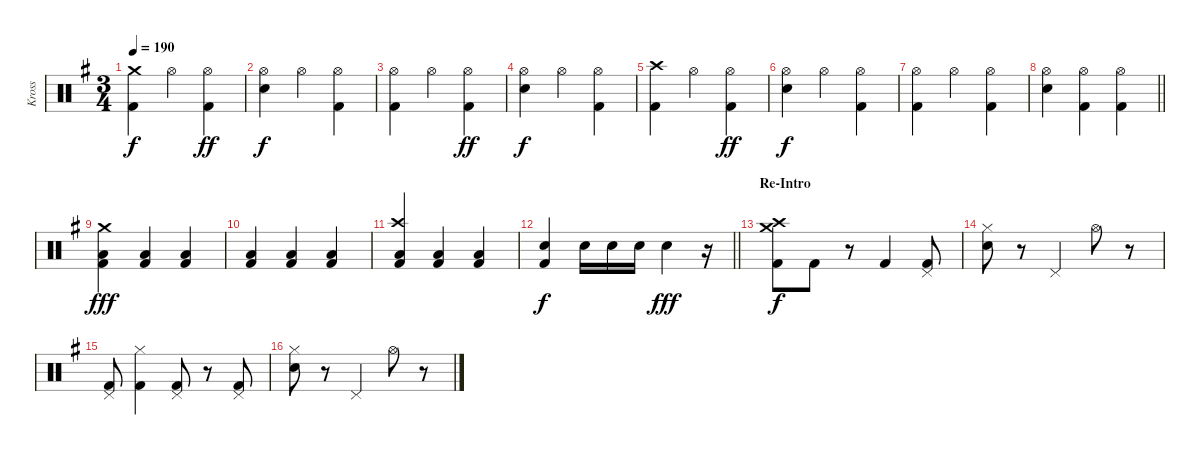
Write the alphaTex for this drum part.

\track ("Kross" "Kross") {instrument percussion}
\staff {score}
\articulation defaults
\ts (3 4)
\tempo 190
\clef neutral
\ks g
("Crash medium (hit)" "Kick (hit) 2").4{dy f} "Hi-Hat (open)".4 ("Hi-Hat (open)" "Kick (hit) 2").4{dy ff} |
("Hi-Hat (open)" "Snare (hit) 2").4{dy f} "Hi-Hat (open)".4 ("Hi-Hat (open)" "Kick (hit) 2").4 |
("Hi-Hat (open)" "Kick (hit) 2").4 "Hi-Hat (open)".4 ("Hi-Hat (open)" "Kick (hit) 2").4{dy ff} |
("Hi-Hat (open)" "Snare (hit) 2").4{dy f} "Hi-Hat (open)".4 ("Hi-Hat (open)" "Kick (hit) 2").4 |
("Crash high (hit)" "Kick (hit) 2").4 "Hi-Hat (open)".4 ("Hi-Hat (open)" "Kick (hit) 2").4{dy ff} |
("Hi-Hat (open)" "Snare (hit) 2").4{dy f} "Hi-Hat (open)".4 ("Hi-Hat (open)" "Kick (hit) 2").4 |
("Hi-Hat (open)" "Kick (hit) 2").4 "Hi-Hat (open)".4 ("Hi-Hat (open)" "Kick (hit) 2").4 |
\barLineRight lightlight
("Hi-Hat (open)" "Snare (hit) 2").4 ("Hi-Hat (open)" "Kick (hit) 2").4 ("Hi-Hat (open)" "Kick (hit) 2").4 |
("Crash medium (hit)" "Low Floor Tom (hit)" "Kick (hit) 2").4{dy fff} ("Low Floor Tom (hit)" "Kick (hit) 2").4 ("Low Floor Tom (hit)" "Kick (hit) 2").4 |
("Low Floor Tom (hit)" "Kick (hit) 2").4 ("Low Floor Tom (hit)" "Kick (hit) 2").4 ("Low Floor Tom (hit)" "Kick (hit) 2").4 |
("Crash high (hit)" "Low Floor Tom (hit)" "Kick (hit) 2").4 ("Low Floor Tom (hit)" "Kick (hit) 2").4 ("Low Floor Tom (hit)" "Kick (hit) 2").4 |
\barLineRight lightlight
("Snare (hit) 2" "Kick (hit) 2").4{dy f} "Electric Snare (hit)".16 "Electric Snare (hit)".16 "Electric Snare (hit)".16 "Snare (hit) 2".4{dy fff} r.16 |
\section ("" "Re-Intro")
("Crash medium (hit)" "Crash high (hit)" "Kick (hit) 2").8{dy f} "Kick (hit) 2".8 r.8 "Kick (hit) 2".4 ("Pedal Hi-Hat (hit)" "Kick (hit) 2").8 |
("Hi-Hat (closed)" "Snare (hit) 2").8 r.8 "Pedal Hi-Hat (hit)".4 "Hi-Hat (open)".8 r.8 |
("Pedal Hi-Hat (hit)" "Kick (hit) 2").8 ("Hi-Hat (closed)" "Kick (hit) 2").4 ("Pedal Hi-Hat (hit)" "Kick (hit) 2").8 r.8 ("Pedal Hi-Hat (hit)" "Kick (hit) 2").8 |
("Hi-Hat (closed)" "Snare (hit) 2").8 r.8 "Pedal Hi-Hat (hit)".4 "Hi-Hat (open)".8 r.8
